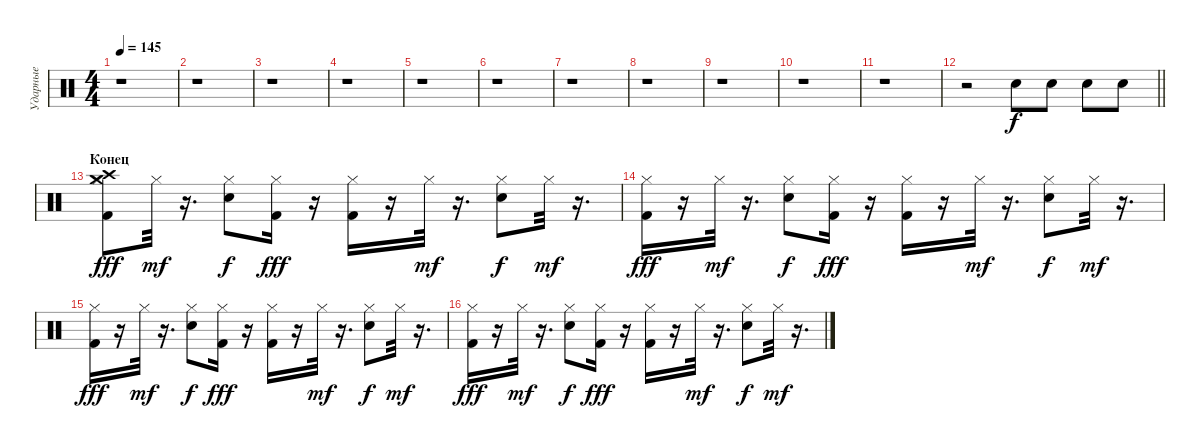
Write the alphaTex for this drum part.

\track ("Ударные" "Ударные") {instrument percussion}
\staff {score}
\articulation defaults
\ts (4 4)
\tempo 145
\clef neutral
\ks c
r.1{dy fff} |
r.1 |
r.1 |
r.1 |
r.1 |
r.1 |
r.1 |
r.1 |
r.1 |
r.1 |
r.1 |
\barLineRight lightlight
r.2 "Snare (hit) 2".8{dy f} "Snare (hit) 2".8 "Snare (hit) 2".8 "Snare (hit) 2".8 |
\section ("" "Конец")
("Hi-Hat (closed)" "Crash high (hit)" "Crash medium (hit)" "Kick (hit) 2").8{dy fff} "Hi-Hat (closed)".32{dy mf} r.16{d} ("Snare (hit) 2" "Hi-Hat (closed)").8{dy f} ("Hi-Hat (closed)" "Kick (hit) 2").16{dy fff} r.16 ("Hi-Hat (closed)" "Kick (hit) 2").16 r.16 "Hi-Hat (closed)".32{dy mf} r.16{d} ("Snare (hit) 2" "Hi-Hat (closed)").8{dy f} "Hi-Hat (closed)".32{dy mf} r.16{d} |
("Hi-Hat (closed)" "Kick (hit) 2").16{dy fff} r.16 "Hi-Hat (closed)".32{dy mf} r.16{d} ("Snare (hit) 2" "Hi-Hat (closed)").8{dy f} ("Hi-Hat (closed)" "Kick (hit) 2").16{dy fff} r.16 ("Hi-Hat (closed)" "Kick (hit) 2").16 r.16 "Hi-Hat (closed)".32{dy mf} r.16{d} ("Snare (hit) 2" "Hi-Hat (closed)").8{dy f} "Hi-Hat (closed)".32{dy mf} r.16{d} |
("Hi-Hat (closed)" "Kick (hit) 2").16{dy fff} r.16 "Hi-Hat (closed)".32{dy mf} r.16{d} ("Snare (hit) 2" "Hi-Hat (closed)").8{dy f} ("Hi-Hat (closed)" "Kick (hit) 2").16{dy fff} r.16 ("Hi-Hat (closed)" "Kick (hit) 2").16 r.16 "Hi-Hat (closed)".32{dy mf} r.16{d} ("Snare (hit) 2" "Hi-Hat (closed)").8{dy f} "Hi-Hat (closed)".32{dy mf} r.16{d} |
("Hi-Hat (closed)" "Kick (hit) 2").16{dy fff} r.16 "Hi-Hat (closed)".32{dy mf} r.16{d} ("Snare (hit) 2" "Hi-Hat (closed)").8{dy f} ("Hi-Hat (closed)" "Kick (hit) 2").16{dy fff} r.16 ("Hi-Hat (closed)" "Kick (hit) 2").16 r.16 "Hi-Hat (closed)".32{dy mf} r.16{d} ("Snare (hit) 2" "Hi-Hat (closed)").8{dy f} "Hi-Hat (closed)".32{dy mf} r.16{d}
